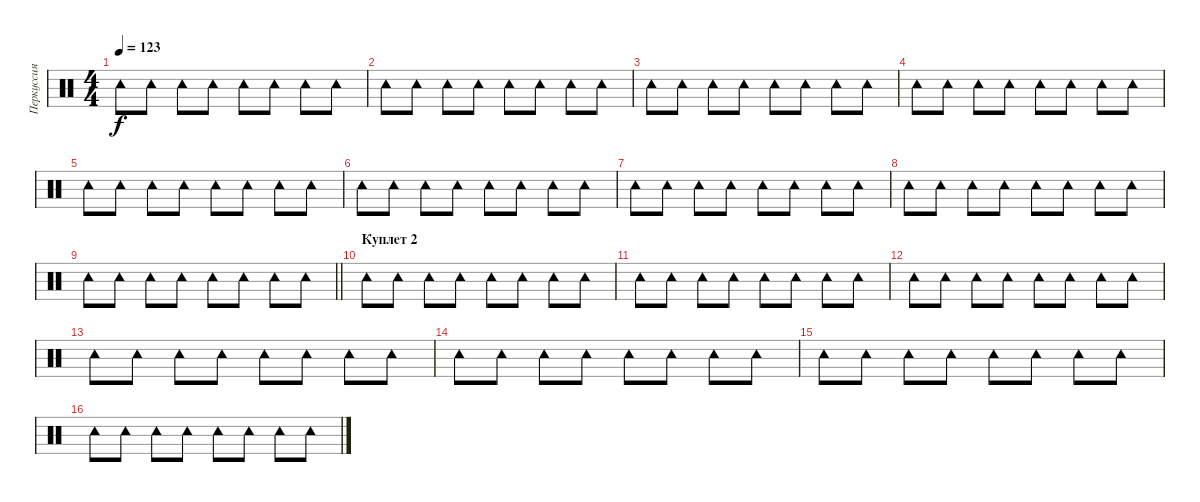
\track ("Перкуссия 1" "Перкуссия ") {instrument percussion}
\staff {score}
\articulation defaults
\ts (4 4)
\tempo 123
\clef neutral
\ks c "Tambourine (hit)".8{dy f} "Tambourine (hit)".8 "Tambourine (hit)".8 "Tambourine (hit)".8 "Tambourine (hit)".8 "Tambourine (hit)".8 "Tambourine (hit)".8 "Tambourine (hit)".8
|
"Tambourine (hit)".8 "Tambourine (hit)".8 "Tambourine (hit)".8 "Tambourine (hit)".8 "Tambourine (hit)".8 "Tambourine (hit)".8 "Tambourine (hit)".8 "Tambourine (hit)".8 |
"Tambourine (hit)".8 "Tambourine (hit)".8 "Tambourine (hit)".8 "Tambourine (hit)".8 "Tambourine (hit)".8 "Tambourine (hit)".8 "Tambourine (hit)".8 "Tambourine (hit)".8 |
"Tambourine (hit)".8 "Tambourine (hit)".8 "Tambourine (hit)".8 "Tambourine (hit)".8 "Tambourine (hit)".8 "Tambourine (hit)".8 "Tambourine (hit)".8 "Tambourine (hit)".8 |
"Tambourine (hit)".8 "Tambourine (hit)".8 "Tambourine (hit)".8 "Tambourine (hit)".8 "Tambourine (hit)".8 "Tambourine (hit)".8 "Tambourine (hit)".8 "Tambourine (hit)".8 |
"Tambourine (hit)".8 "Tambourine (hit)".8 "Tambourine (hit)".8 "Tambourine (hit)".8 "Tambourine (hit)".8 "Tambourine (hit)".8 "Tambourine (hit)".8 "Tambourine (hit)".8 |
"Tambourine (hit)".8 "Tambourine (hit)".8 "Tambourine (hit)".8 "Tambourine (hit)".8 "Tambourine (hit)".8 "Tambourine (hit)".8 "Tambourine (hit)".8 "Tambourine (hit)".8 |
"Tambourine (hit)".8 "Tambourine (hit)".8 "Tambourine (hit)".8 "Tambourine (hit)".8 "Tambourine (hit)".8 "Tambourine (hit)".8 "Tambourine (hit)".8 "Tambourine (hit)".8 |
\barLineRight lightlight "Tambourine (hit)".8 "Tambourine (hit)".8 "Tambourine (hit)".8 "Tambourine (hit)".8 "Tambourine (hit)".8 "Tambourine (hit)".8 "Tambourine (hit)".8 "Tambourine (hit)".8
|
\section ("" "Куплет 2")
"Tambourine (hit)".8 "Tambourine (hit)".8 "Tambourine (hit)".8 "Tambourine (hit)".8 "Tambourine (hit)".8 "Tambourine (hit)".8 "Tambourine (hit)".8 "Tambourine (hit)".8 |
"Tambourine (hit)".8 "Tambourine (hit)".8 "Tambourine (hit)".8 "Tambourine (hit)".8 "Tambourine (hit)".8 "Tambourine (hit)".8 "Tambourine (hit)".8 "Tambourine (hit)".8 |
"Tambourine (hit)".8 "Tambourine (hit)".8 "Tambourine (hit)".8 "Tambourine (hit)".8 "Tambourine (hit)".8 "Tambourine (hit)".8 "Tambourine (hit)".8 "Tambourine (hit)".8 |
"Tambourine (hit)".8 "Tambourine (hit)".8 "Tambourine (hit)".8 "Tambourine (hit)".8 "Tambourine (hit)".8 "Tambourine (hit)".8 "Tambourine (hit)".8 "Tambourine (hit)".8 |
"Tambourine (hit)".8 "Tambourine (hit)".8 "Tambourine (hit)".8 "Tambourine (hit)".8 "Tambourine (hit)".8 "Tambourine (hit)".8 "Tambourine (hit)".8 "Tambourine (hit)".8 |
"Tambourine (hit)".8 "Tambourine (hit)".8 "Tambourine (hit)".8 "Tambourine (hit)".8 "Tambourine (hit)".8 "Tambourine (hit)".8 "Tambourine (hit)".8 "Tambourine (hit)".8 |
"Tambourine (hit)".8 "Tambourine (hit)".8 "Tambourine (hit)".8 "Tambourine (hit)".8 "Tambourine (hit)".8 "Tambourine (hit)".8 "Tambourine (hit)".8 "Tambourine (hit)".8
